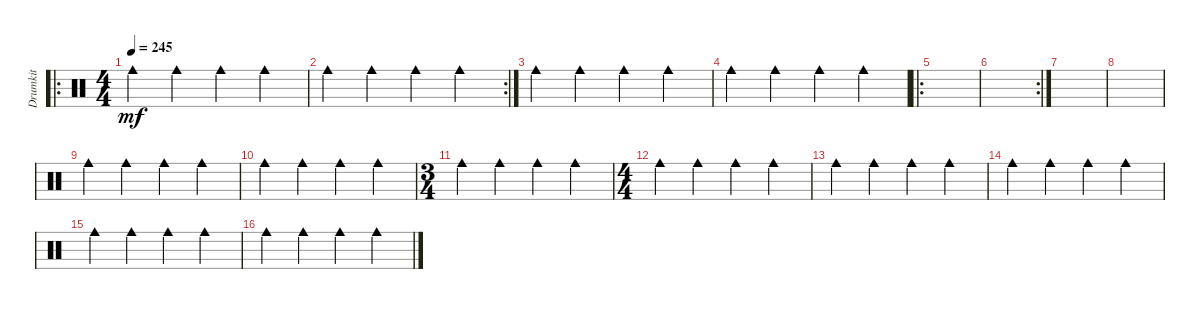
\track ("Drumkit" "Drumkit") {instrument percussion}
\staff {score}
\articulation defaults
\ro
\ts (4 4)
\tempo 245
\clef neutral
\ks c "Cowbell medium (hit)".4{dy mf} "Cowbell medium (hit)".4 "Cowbell medium (hit)".4 "Cowbell medium (hit)".4
|
\rc 2 "Cowbell medium (hit)".4 "Cowbell medium (hit)".4 "Cowbell medium (hit)".4 "Cowbell medium (hit)".4
|
"Cowbell medium (hit)".4 "Cowbell medium (hit)".4 "Cowbell medium (hit)".4 "Cowbell medium (hit)".4 |
"Cowbell medium (hit)".4 "Cowbell medium (hit)".4 "Cowbell medium (hit)".4 "Cowbell medium (hit)".4 |
\ro
|
\rc 2
|
|
|
"Cowbell medium (hit)".4 "Cowbell medium (hit)".4 "Cowbell medium (hit)".4 "Cowbell medium (hit)".4 |
"Cowbell medium (hit)".4 "Cowbell medium (hit)".4 "Cowbell medium (hit)".4 "Cowbell medium (hit)".4 |
\ts (3 4)
"Cowbell medium (hit)".4 "Cowbell medium (hit)".4 "Cowbell medium (hit)".4 "Cowbell medium (hit)".4 |
\ts (4 4)
"Cowbell medium (hit)".4 "Cowbell medium (hit)".4 "Cowbell medium (hit)".4 "Cowbell medium (hit)".4 |
"Cowbell medium (hit)".4 "Cowbell medium (hit)".4 "Cowbell medium (hit)".4 "Cowbell medium (hit)".4 |
"Cowbell medium (hit)".4 "Cowbell medium (hit)".4 "Cowbell medium (hit)".4 "Cowbell medium (hit)".4 |
"Cowbell medium (hit)".4 "Cowbell medium (hit)".4 "Cowbell medium (hit)".4 "Cowbell medium (hit)".4 |
"Cowbell medium (hit)".4 "Cowbell medium (hit)".4 "Cowbell medium (hit)".4 "Cowbell medium (hit)".4
